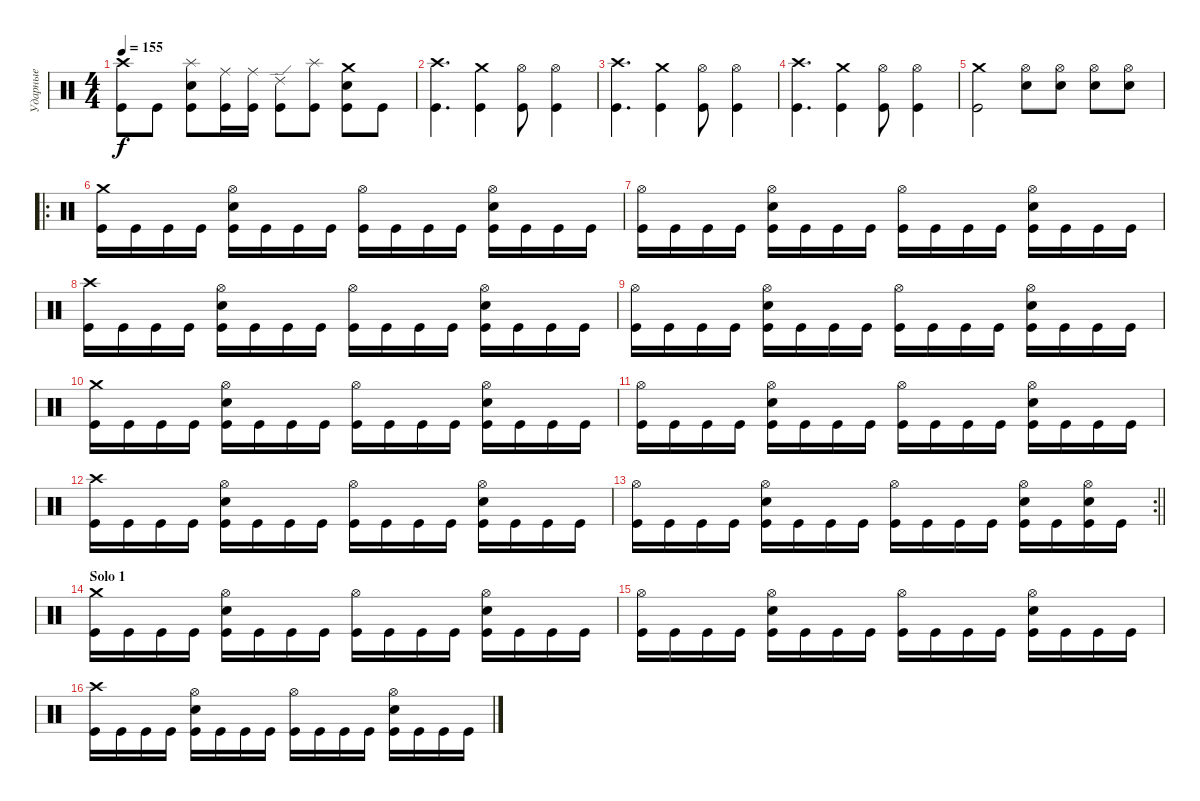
\track ("Ударные" "Ударные") {instrument percussion}
\staff {score}
\articulation defaults
\ts (4 4)
\tempo 155
\clef neutral
\ks c
("Crash high (hit)" "Kick (hit)").8{dy f} "Kick (hit)".8 ("Snare (hit) 2" "Splash (hit)" "Kick (hit)").8 ("Ride (middle)" "Kick (hit)").16 ("Ride (middle)" "Kick (hit)").16 ("Ride (edge) 2" "Kick (hit)").8 ("Splash (hit)" "Kick (hit)").8 ("Crash medium (hit)" "Snare (hit) 2" "Kick (hit)").8 "Kick (hit)".8 |
("Crash high (hit)" "Kick (hit)").4{d} ("Crash medium (hit)" "Kick (hit)").4 ("Hi-Hat (open)" "Kick (hit)").8 ("Hi-Hat (open)" "Kick (hit)").4 |
("Crash high (hit)" "Kick (hit)").4{d} ("Crash medium (hit)" "Kick (hit)").4 ("Hi-Hat (open)" "Kick (hit)").8 ("Hi-Hat (open)" "Kick (hit)").4 |
("Crash high (hit)" "Kick (hit)").4{d} ("Crash medium (hit)" "Kick (hit)").4 ("Hi-Hat (open)" "Kick (hit)").8 ("Hi-Hat (open)" "Kick (hit)").4 |
("Crash medium (hit)" "Kick (hit)").2 ("Snare (hit) 2" "Hi-Hat (open)").8 ("Snare (hit) 2" "Hi-Hat (open)").8 ("Snare (hit) 2" "Hi-Hat (open)").8 ("Snare (hit) 2" "Hi-Hat (open)").8 |
\ro
("Crash medium (hit)" "Kick (hit)").16 "Kick (hit)".16 "Kick (hit)".16 "Kick (hit)".16 ("Snare (hit) 2" "Hi-Hat (open)" "Kick (hit)").16 "Kick (hit)".16 "Kick (hit)".16 "Kick (hit)".16 ("Hi-Hat (open)" "Kick (hit)").16 "Kick (hit)".16 "Kick (hit)".16 "Kick (hit)".16 ("Snare (hit) 2" "Hi-Hat (open)" "Kick (hit)").16 "Kick (hit)".16 "Kick (hit)".16 "Kick (hit)".16 |
("Hi-Hat (open)" "Kick (hit)").16 "Kick (hit)".16 "Kick (hit)".16 "Kick (hit)".16 ("Snare (hit) 2" "Hi-Hat (open)" "Kick (hit)").16 "Kick (hit)".16 "Kick (hit)".16 "Kick (hit)".16 ("Hi-Hat (open)" "Kick (hit)").16 "Kick (hit)".16 "Kick (hit)".16 "Kick (hit)".16 ("Snare (hit) 2" "Hi-Hat (open)" "Kick (hit)").16 "Kick (hit)".16 "Kick (hit)".16 "Kick (hit)".16 |
("Crash high (hit)" "Kick (hit)").16 "Kick (hit)".16 "Kick (hit)".16 "Kick (hit)".16 ("Snare (hit) 2" "Hi-Hat (open)" "Kick (hit)").16 "Kick (hit)".16 "Kick (hit)".16 "Kick (hit)".16 ("Hi-Hat (open)" "Kick (hit)").16 "Kick (hit)".16 "Kick (hit)".16 "Kick (hit)".16 ("Snare (hit) 2" "Hi-Hat (open)" "Kick (hit)").16 "Kick (hit)".16 "Kick (hit)".16 "Kick (hit)".16 |
("Hi-Hat (open)" "Kick (hit)").16 "Kick (hit)".16 "Kick (hit)".16 "Kick (hit)".16 ("Snare (hit) 2" "Hi-Hat (open)" "Kick (hit)").16 "Kick (hit)".16 "Kick (hit)".16 "Kick (hit)".16 ("Hi-Hat (open)" "Kick (hit)").16 "Kick (hit)".16 "Kick (hit)".16 "Kick (hit)".16 ("Snare (hit) 2" "Hi-Hat (open)" "Kick (hit)").16 "Kick (hit)".16 "Kick (hit)".16 "Kick (hit)".16 |
("Crash medium (hit)" "Kick (hit)").16 "Kick (hit)".16 "Kick (hit)".16 "Kick (hit)".16 ("Snare (hit) 2" "Hi-Hat (open)" "Kick (hit)").16 "Kick (hit)".16 "Kick (hit)".16 "Kick (hit)".16 ("Hi-Hat (open)" "Kick (hit)").16 "Kick (hit)".16 "Kick (hit)".16 "Kick (hit)".16 ("Snare (hit) 2" "Hi-Hat (open)" "Kick (hit)").16 "Kick (hit)".16 "Kick (hit)".16 "Kick (hit)".16 |
("Hi-Hat (open)" "Kick (hit)").16 "Kick (hit)".16 "Kick (hit)".16 "Kick (hit)".16 ("Snare (hit) 2" "Hi-Hat (open)" "Kick (hit)").16 "Kick (hit)".16 "Kick (hit)".16 "Kick (hit)".16 ("Hi-Hat (open)" "Kick (hit)").16 "Kick (hit)".16 "Kick (hit)".16 "Kick (hit)".16 ("Snare (hit) 2" "Hi-Hat (open)" "Kick (hit)").16 "Kick (hit)".16 "Kick (hit)".16 "Kick (hit)".16 |
("Crash high (hit)" "Kick (hit)").16 "Kick (hit)".16 "Kick (hit)".16 "Kick (hit)".16 ("Snare (hit) 2" "Hi-Hat (open)" "Kick (hit)").16 "Kick (hit)".16 "Kick (hit)".16 "Kick (hit)".16 ("Hi-Hat (open)" "Kick (hit)").16 "Kick (hit)".16 "Kick (hit)".16 "Kick (hit)".16 ("Snare (hit) 2" "Hi-Hat (open)" "Kick (hit)").16 "Kick (hit)".16 "Kick (hit)".16 "Kick (hit)".16 |
\rc 2
\barLineRight lightlight
("Hi-Hat (open)" "Kick (hit)").16 "Kick (hit)".16 "Kick (hit)".16 "Kick (hit)".16 ("Snare (hit) 2" "Hi-Hat (open)" "Kick (hit)").16 "Kick (hit)".16 "Kick (hit)".16 "Kick (hit)".16 ("Hi-Hat (open)" "Kick (hit)").16 "Kick (hit)".16 "Kick (hit)".16 "Kick (hit)".16 ("Snare (hit) 2" "Hi-Hat (open)" "Kick (hit)").16 "Kick (hit)".16 ("Snare (hit) 2" "Hi-Hat (open)" "Kick (hit)").16 "Kick (hit)".16 |
\section ("" "Solo 1")
("Crash medium (hit)" "Kick (hit)").16 "Kick (hit)".16 "Kick (hit)".16 "Kick (hit)".16 ("Snare (hit) 2" "Hi-Hat (open)" "Kick (hit)").16 "Kick (hit)".16 "Kick (hit)".16 "Kick (hit)".16 ("Hi-Hat (open)" "Kick (hit)").16 "Kick (hit)".16 "Kick (hit)".16 "Kick (hit)".16 ("Snare (hit) 2" "Hi-Hat (open)" "Kick (hit)").16 "Kick (hit)".16 "Kick (hit)".16 "Kick (hit)".16 |
("Hi-Hat (open)" "Kick (hit)").16 "Kick (hit)".16 "Kick (hit)".16 "Kick (hit)".16 ("Snare (hit) 2" "Hi-Hat (open)" "Kick (hit)").16 "Kick (hit)".16 "Kick (hit)".16 "Kick (hit)".16 ("Hi-Hat (open)" "Kick (hit)").16 "Kick (hit)".16 "Kick (hit)".16 "Kick (hit)".16 ("Snare (hit) 2" "Hi-Hat (open)" "Kick (hit)").16 "Kick (hit)".16 "Kick (hit)".16 "Kick (hit)".16 |
("Crash high (hit)" "Kick (hit)").16 "Kick (hit)".16 "Kick (hit)".16 "Kick (hit)".16 ("Snare (hit) 2" "Hi-Hat (open)" "Kick (hit)").16 "Kick (hit)".16 "Kick (hit)".16 "Kick (hit)".16 ("Hi-Hat (open)" "Kick (hit)").16 "Kick (hit)".16 "Kick (hit)".16 "Kick (hit)".16 ("Snare (hit) 2" "Hi-Hat (open)" "Kick (hit)").16 "Kick (hit)".16 "Kick (hit)".16 "Kick (hit)".16
